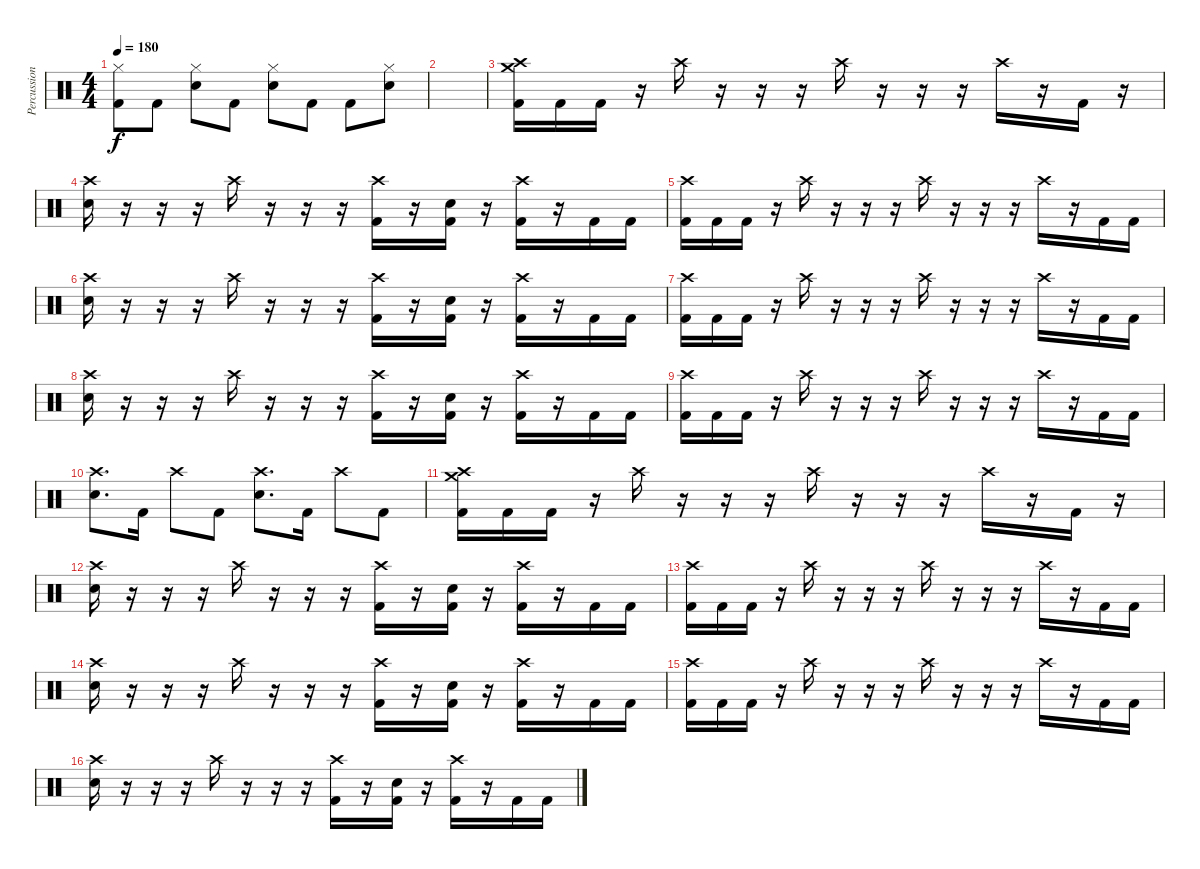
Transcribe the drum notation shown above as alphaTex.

\track ("Percussion" "Percussion") {instrument percussion}
\staff {score}
\articulation defaults
\ts (4 4)
\tempo 180
\clef neutral
\ks c
("Hi-Hat (closed)" "Kick (hit) 2").8{dy f} "Kick (hit) 2".8 ("Hi-Hat (closed)" "Electric Snare (hit)").8 "Kick (hit) 2".8 ("Hi-Hat (closed)" "Electric Snare (hit)").8 "Kick (hit) 2".8 "Kick (hit) 2".8 ("Hi-Hat (closed)" "Electric Snare (hit)").8 |
|
("Crash medium (hit)" "Crash high (hit)" "Kick (hit) 2").16 "Kick (hit) 2".16 "Kick (hit) 2".16 r.16 "Crash high (hit)".16 r.16 r.16 r.16 "Crash high (hit)".16 r.16 r.16 r.16 "Crash high (hit)".16 r.16 "Kick (hit) 2".16 r.16 |
("Crash high (hit)" "Electric Snare (hit)").16 r.16 r.16 r.16 "Crash high (hit)".16 r.16 r.16 r.16 ("Crash high (hit)" "Kick (hit) 2").16 r.16 ("Electric Snare (hit)" "Kick (hit) 2").16 r.16 ("Crash high (hit)" "Kick (hit) 2").16 r.16 "Kick (hit) 2".16 "Kick (hit) 2".16 |
("Crash high (hit)" "Kick (hit) 2").16 "Kick (hit) 2".16 "Kick (hit) 2".16 r.16 "Crash high (hit)".16 r.16 r.16 r.16 "Crash high (hit)".16 r.16 r.16 r.16 "Crash high (hit)".16 r.16 "Kick (hit) 2".16 "Kick (hit) 2".16 |
("Crash high (hit)" "Electric Snare (hit)").16 r.16 r.16 r.16 "Crash high (hit)".16 r.16 r.16 r.16 ("Crash high (hit)" "Kick (hit) 2").16 r.16 ("Electric Snare (hit)" "Kick (hit) 2").16 r.16 ("Crash high (hit)" "Kick (hit) 2").16 r.16 "Kick (hit) 2".16 "Kick (hit) 2".16 |
("Crash high (hit)" "Kick (hit) 2").16 "Kick (hit) 2".16 "Kick (hit) 2".16 r.16 "Crash high (hit)".16 r.16 r.16 r.16 "Crash high (hit)".16 r.16 r.16 r.16 "Crash high (hit)".16 r.16 "Kick (hit) 2".16 "Kick (hit) 2".16 |
("Crash high (hit)" "Electric Snare (hit)").16 r.16 r.16 r.16 "Crash high (hit)".16 r.16 r.16 r.16 ("Crash high (hit)" "Kick (hit) 2").16 r.16 ("Electric Snare (hit)" "Kick (hit) 2").16 r.16 ("Crash high (hit)" "Kick (hit) 2").16 r.16 "Kick (hit) 2".16 "Kick (hit) 2".16 |
("Crash high (hit)" "Kick (hit) 2").16 "Kick (hit) 2".16 "Kick (hit) 2".16 r.16 "Crash high (hit)".16 r.16 r.16 r.16 "Crash high (hit)".16 r.16 r.16 r.16 "Crash high (hit)".16 r.16 "Kick (hit) 2".16 "Kick (hit) 2".16 |
("Crash high (hit)" "Electric Snare (hit)").8{d} "Kick (hit) 2".16 "Crash high (hit)".8 "Kick (hit) 2".8 ("Crash high (hit)" "Electric Snare (hit)").8{d} "Kick (hit) 2".16 "Crash high (hit)".8 "Kick (hit) 2".8 |
("Crash medium (hit)" "Crash high (hit)" "Kick (hit) 2").16 "Kick (hit) 2".16 "Kick (hit) 2".16 r.16 "Crash high (hit)".16 r.16 r.16 r.16 "Crash high (hit)".16 r.16 r.16 r.16 "Crash high (hit)".16 r.16 "Kick (hit) 2".16 r.16 |
("Crash high (hit)" "Electric Snare (hit)").16 r.16 r.16 r.16 "Crash high (hit)".16 r.16 r.16 r.16 ("Crash high (hit)" "Kick (hit) 2").16 r.16 ("Electric Snare (hit)" "Kick (hit) 2").16 r.16 ("Crash high (hit)" "Kick (hit) 2").16 r.16 "Kick (hit) 2".16 "Kick (hit) 2".16 |
("Crash high (hit)" "Kick (hit) 2").16 "Kick (hit) 2".16 "Kick (hit) 2".16 r.16 "Crash high (hit)".16 r.16 r.16 r.16 "Crash high (hit)".16 r.16 r.16 r.16 "Crash high (hit)".16 r.16 "Kick (hit) 2".16 "Kick (hit) 2".16 |
("Crash high (hit)" "Electric Snare (hit)").16 r.16 r.16 r.16 "Crash high (hit)".16 r.16 r.16 r.16 ("Crash high (hit)" "Kick (hit) 2").16 r.16 ("Electric Snare (hit)" "Kick (hit) 2").16 r.16 ("Crash high (hit)" "Kick (hit) 2").16 r.16 "Kick (hit) 2".16 "Kick (hit) 2".16 |
("Crash high (hit)" "Kick (hit) 2").16 "Kick (hit) 2".16 "Kick (hit) 2".16 r.16 "Crash high (hit)".16 r.16 r.16 r.16 "Crash high (hit)".16 r.16 r.16 r.16 "Crash high (hit)".16 r.16 "Kick (hit) 2".16 "Kick (hit) 2".16 |
("Crash high (hit)" "Electric Snare (hit)").16 r.16 r.16 r.16 "Crash high (hit)".16 r.16 r.16 r.16 ("Crash high (hit)" "Kick (hit) 2").16 r.16 ("Electric Snare (hit)" "Kick (hit) 2").16 r.16 ("Crash high (hit)" "Kick (hit) 2").16 r.16 "Kick (hit) 2".16 "Kick (hit) 2".16
